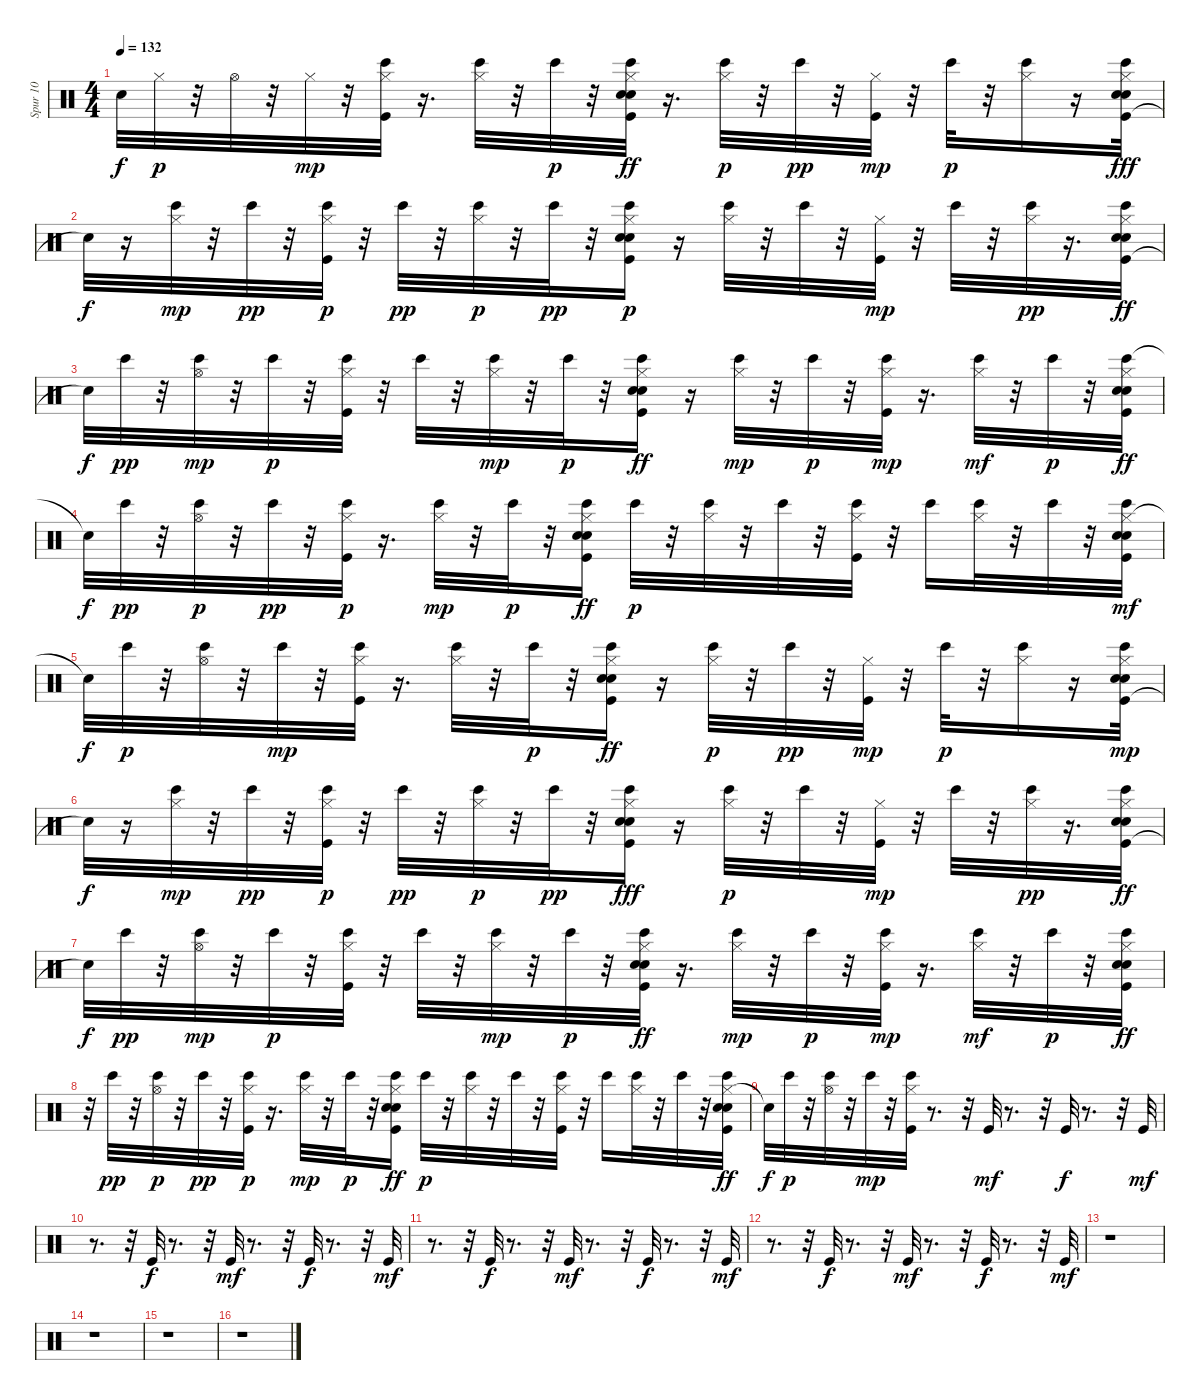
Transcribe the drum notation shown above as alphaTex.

\track ("Spur 10" "Spur 10") {instrument percussion}
\staff {score}
\articulation defaults
\ts (4 4)
\tempo 132
\clef neutral
\ks c "Snare (hit)"{t}.32{dy f} "Hi-Hat (closed)".32{dy p}
r.32 "Hi-Hat (open)".32 r.32 "Hi-Hat (closed)".32{dy mp} r.32 ("Bongo High (hit)" "Kick (hit)" "Hi-Hat (closed)").32 r.16{d} ("Bongo High (hit)" "Hi-Hat (closed)").32 r.32 "Bongo High (hit)".32{dy p} r.32 ("Hi-Hat (closed)" "Snare (hit) 2" "Bongo High (hit)" "Kick (hit)" "Hand Clap (hit)").32{dy ff} r.16{d} ("Hi-Hat (closed)" "Bongo High (hit)").32{dy p} r.32 "Bongo High (hit)".32{dy pp} r.32 ("Hi-Hat (closed)" "Kick (hit)").32{dy mp} r.32 "Bongo High (hit)".32{dy p} r.32 ("Hi-Hat (closed)" "Bongo High (hit)").16 r.16 ("Kick (hit)" "Bongo High (hit)" "Hi-Hat (closed)" "Snare (hit) 2" "Hand Clap (hit)").32{dy fff} |
"Snare (hit)"{t}.32{dy f} r.16 ("Bongo High (hit)" "Hi-Hat (closed)").32{dy mp} r.32 "Bongo High (hit)".32{dy pp} r.32 ("Hi-Hat (closed)" "Bongo High (hit)" "Kick (hit)").32{dy p} r.32 "Bongo High (hit)".32{dy pp} r.32 ("Hi-Hat (closed)" "Bongo High (hit)").32{dy p} r.32 "Bongo High (hit)".32{dy pp} r.32 ("Kick (hit)" "Hi-Hat (closed)" "Snare (hit) 2" "Bongo High (hit)" "Hand Clap (hit)").16{dy p} r.16 ("Bongo High (hit)" "Hi-Hat (closed)").32 r.32 "Bongo High (hit)".32 r.32 ("Hi-Hat (closed)" "Kick (hit)").32{dy mp} r.32 "Bongo High (hit)".32 r.32 ("Hi-Hat (closed)" "Bongo High (hit)").32{dy pp} r.16{d} ("Kick (hit)" "Bongo High (hit)" "Hi-Hat (closed)" "Snare (hit) 2" "Hand Clap (hit)").32{dy ff} |
"Snare (hit)"{t}.32{dy f} "Bongo High (hit)".32{dy pp} r.32 ("Hi-Hat (open)" "Bongo High (hit)").32{dy mp} r.32 "Bongo High (hit)".32{dy p} r.32 ("Hi-Hat (closed)" "Kick (hit)" "Bongo High (hit)").32 r.32 "Bongo High (hit)".32 r.32 ("Hi-Hat (closed)" "Bongo High (hit)").32{dy mp} r.32 "Bongo High (hit)".32{dy p} r.32 ("Hi-Hat (closed)" "Snare (hit) 2" "Bongo High (hit)" "Kick (hit)" "Hand Clap (hit)").16{dy ff} r.16 ("Bongo High (hit)" "Hi-Hat (closed)").32{dy mp} r.32 "Bongo High (hit)".32{dy p} r.32 ("Bongo High (hit)" "Hi-Hat (closed)" "Kick (hit)").32{dy mp} r.16{d} ("Bongo High (hit)" "Hi-Hat (closed)").32{dy mf} r.32 "Bongo High (hit)".32{dy p} r.32 ("Bongo High (hit)" "Hi-Hat (closed)" "Snare (hit) 2" "Kick (hit)" "Hand Clap (hit)").32{dy ff} |
"Snare (hit)"{t}.32{dy f} "Bongo High (hit)".32{dy pp} r.32 ("Bongo High (hit)" "Hi-Hat (open)").32{dy p} r.32 "Bongo High (hit)".32{dy pp} r.32 ("Hi-Hat (closed)" "Kick (hit)" "Bongo High (hit)").32{dy p} r.16{d} ("Bongo High (hit)" "Hi-Hat (closed)").32{dy mp} r.32 "Bongo High (hit)".32{dy p} r.32 ("Bongo High (hit)" "Hi-Hat (closed)" "Snare (hit) 2" "Kick (hit)" "Hand Clap (hit)").16{dy ff} "Bongo High (hit)".32{dy p} r.32 ("Hi-Hat (closed)" "Bongo High (hit)").32 r.32 "Bongo High (hit)".32 r.32 ("Hi-Hat (closed)" "Kick (hit)" "Bongo High (hit)").32 r.32 "Bongo High (hit)".16 ("Hi-Hat (closed)" "Bongo High (hit)").32 r.32 "Bongo High (hit)".32 r.32 ("Hi-Hat (closed)" "Snare (hit) 2" "Bongo High (hit)" "Kick (hit)" "Hand Clap (hit)").32{dy mf} |
"Snare (hit)"{t}.32{dy f} "Bongo High (hit)".32{dy p} r.32 ("Hi-Hat (open)" "Bongo High (hit)").32 r.32 "Bongo High (hit)".32{dy mp} r.32 ("Bongo High (hit)" "Kick (hit)" "Hi-Hat (closed)").32 r.16{d} ("Bongo High (hit)" "Hi-Hat (closed)").32 r.32 "Bongo High (hit)".32{dy p} r.32 ("Hi-Hat (closed)" "Snare (hit) 2" "Bongo High (hit)" "Kick (hit)" "Hand Clap (hit)").16{dy ff} r.16 ("Hi-Hat (closed)" "Bongo High (hit)").32{dy p} r.32 "Bongo High (hit)".32{dy pp} r.32 ("Hi-Hat (closed)" "Kick (hit)").32{dy mp} r.32 "Bongo High (hit)".32{dy p} r.32 ("Hi-Hat (closed)" "Bongo High (hit)").16 r.16 ("Kick (hit)" "Bongo High (hit)" "Hi-Hat (closed)" "Snare (hit) 2" "Hand Clap (hit)").32{dy mp} |
"Snare (hit)"{t}.32{dy f} r.16 ("Bongo High (hit)" "Hi-Hat (closed)").32{dy mp} r.32 "Bongo High (hit)".32{dy pp} r.32 ("Hi-Hat (closed)" "Bongo High (hit)" "Kick (hit)").32{dy p} r.32 "Bongo High (hit)".32{dy pp} r.32 ("Hi-Hat (closed)" "Bongo High (hit)").32{dy p} r.32 "Bongo High (hit)".32{dy pp} r.32 ("Kick (hit)" "Hi-Hat (closed)" "Snare (hit) 2" "Bongo High (hit)" "Hand Clap (hit)").16{dy fff} r.16 ("Bongo High (hit)" "Hi-Hat (closed)").32{dy p} r.32 "Bongo High (hit)".32 r.32 ("Hi-Hat (closed)" "Kick (hit)").32{dy mp} r.32 "Bongo High (hit)".32 r.32 ("Hi-Hat (closed)" "Bongo High (hit)").32{dy pp} r.16{d} ("Kick (hit)" "Bongo High (hit)" "Hi-Hat (closed)" "Snare (hit) 2" "Hand Clap (hit)").32{dy ff} |
"Snare (hit)"{t}.32{dy f} "Bongo High (hit)".32{dy pp} r.32 ("Hi-Hat (open)" "Bongo High (hit)").32{dy mp} r.32 "Bongo High (hit)".32{dy p} r.32 ("Hi-Hat (closed)" "Kick (hit)" "Bongo High (hit)").32 r.32 "Bongo High (hit)".32 r.32 ("Hi-Hat (closed)" "Bongo High (hit)").32{dy mp} r.32 "Bongo High (hit)".32{dy p} r.32 ("Hi-Hat (closed)" "Snare (hit) 2" "Bongo High (hit)" "Kick (hit)" "Hand Clap (hit)").32{dy ff} r.16{d} ("Bongo High (hit)" "Hi-Hat (closed)").32{dy mp} r.32 "Bongo High (hit)".32{dy p} r.32 ("Bongo High (hit)" "Hi-Hat (closed)" "Kick (hit)").32{dy mp} r.16{d} ("Bongo High (hit)" "Hi-Hat (closed)").32{dy mf} r.32 "Bongo High (hit)".32{dy p} r.32 ("Bongo High (hit)" "Hi-Hat (closed)" "Snare (hit) 2" "Kick (hit)" "Hand Clap (hit)").32{dy ff} |
r.32 "Bongo High (hit)".32{dy pp} r.32 ("Bongo High (hit)" "Hi-Hat (open)").32{dy p} r.32 "Bongo High (hit)".32{dy pp} r.32 ("Hi-Hat (closed)" "Kick (hit)" "Bongo High (hit)").32{dy p} r.16{d} ("Bongo High (hit)" "Hi-Hat (closed)").32{dy mp} r.32 "Bongo High (hit)".32{dy p} r.32 ("Bongo High (hit)" "Hi-Hat (closed)" "Snare (hit) 2" "Kick (hit)" "Hand Clap (hit)").16{dy ff} "Bongo High (hit)".32{dy p} r.32 ("Hi-Hat (closed)" "Bongo High (hit)").32 r.32 "Bongo High (hit)".32 r.32 ("Hi-Hat (closed)" "Kick (hit)" "Bongo High (hit)").32 r.32 "Bongo High (hit)".16 ("Hi-Hat (closed)" "Bongo High (hit)").32 r.32 "Bongo High (hit)".32 r.32 ("Hi-Hat (closed)" "Snare (hit) 2" "Bongo High (hit)" "Kick (hit)" "Hand Clap (hit)").32{dy ff} |
"Snare (hit)"{t}.32{dy f} "Bongo High (hit)".32{dy p} r.32 ("Hi-Hat (open)" "Bongo High (hit)").32 r.32 "Bongo High (hit)".32{dy mp} r.32 ("Bongo High (hit)" "Kick (hit)" "Hi-Hat (closed)").32 r.8{d} r.32 "Kick (hit)".32{dy mf} r.8{d} r.32 "Kick (hit)".32{dy f} r.8{d} r.32 "Kick (hit)".32{dy mf} |
r.8{d} r.32 "Kick (hit)".32{dy f} r.8{d} r.32 "Kick (hit)".32{dy mf} r.8{d} r.32 "Kick (hit)".32{dy f} r.8{d} r.32 "Kick (hit)".32{dy mf} |
r.8{d} r.32 "Kick (hit)".32{dy f} r.8{d} r.32 "Kick (hit)".32{dy mf} r.8{d} r.32 "Kick (hit)".32{dy f} r.8{d} r.32 "Kick (hit)".32{dy mf} |
r.8{d} r.32 "Kick (hit)".32{dy f} r.8{d} r.32 "Kick (hit)".32{dy mf} r.8{d} r.32 "Kick (hit)".32{dy f} r.8{d} r.32 "Kick (hit)".32{dy mf} |
r.1 |
r.1 |
r.1 |
r.1
